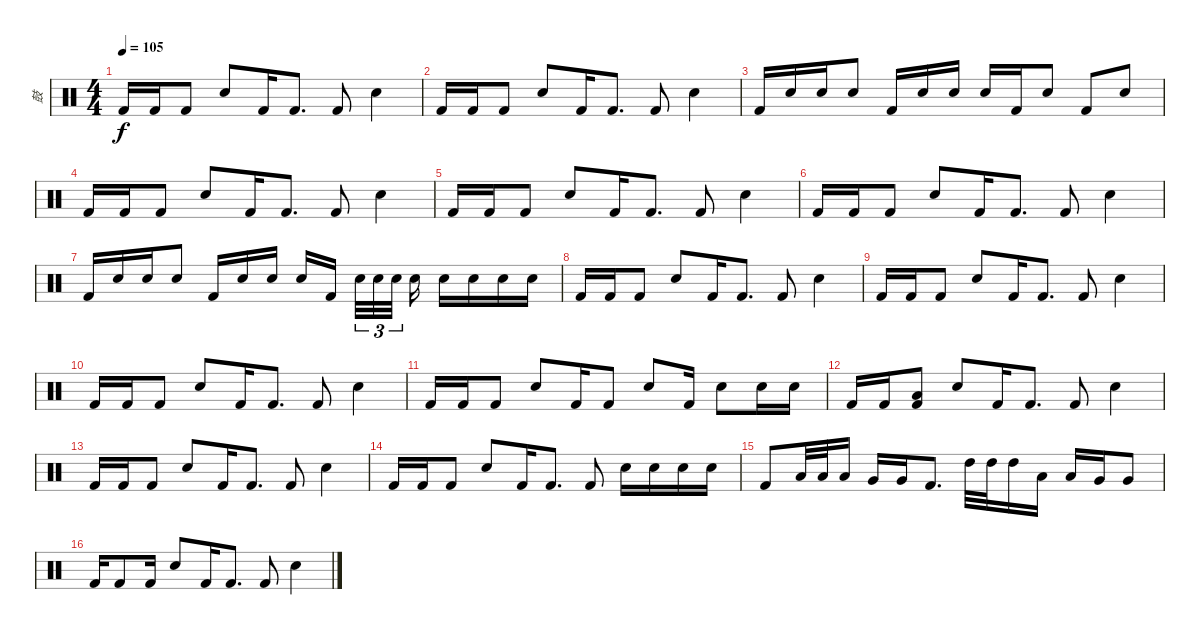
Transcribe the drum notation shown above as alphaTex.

\track ("鼓" "鼓") {instrument percussion}
\staff {score}
\articulation defaults
\ts (4 4)
\tempo 105
\clef neutral
\ks c "Kick (hit) 2".16{dy f} "Kick (hit) 2".16 "Kick (hit) 2".8 "Electric Snare (hit)".8 "Kick (hit) 2".16 "Kick (hit) 2".8{d} "Kick (hit) 2".8 "Electric Snare (hit)".4
|
"Kick (hit) 2".16 "Kick (hit) 2".16 "Kick (hit) 2".8 "Electric Snare (hit)".8 "Kick (hit) 2".16 "Kick (hit) 2".8{d} "Kick (hit) 2".8 "Electric Snare (hit)".4 |
"Kick (hit) 2".16 "Electric Snare (hit)".16 "Electric Snare (hit)".16 "Electric Snare (hit)".8 "Kick (hit) 2".16 "Electric Snare (hit)".16 "Electric Snare (hit)".16 "Electric Snare (hit)".16 "Kick (hit) 2".16 "Electric Snare (hit)".8 "Kick (hit) 2".8 "Electric Snare (hit)".8 |
"Kick (hit) 2".16 "Kick (hit) 2".16 "Kick (hit) 2".8 "Electric Snare (hit)".8 "Kick (hit) 2".16 "Kick (hit) 2".8{d} "Kick (hit) 2".8 "Electric Snare (hit)".4 |
"Kick (hit) 2".16 "Kick (hit) 2".16 "Kick (hit) 2".8 "Electric Snare (hit)".8 "Kick (hit) 2".16 "Kick (hit) 2".8{d} "Kick (hit) 2".8 "Electric Snare (hit)".4 |
"Kick (hit) 2".16 "Kick (hit) 2".16 "Kick (hit) 2".8 "Electric Snare (hit)".8 "Kick (hit) 2".16 "Kick (hit) 2".8{d} "Kick (hit) 2".8 "Electric Snare (hit)".4 |
"Kick (hit) 2".16 "Electric Snare (hit)".16 "Electric Snare (hit)".16 "Electric Snare (hit)".8 "Kick (hit) 2".16 "Electric Snare (hit)".16 "Electric Snare (hit)".16 "Electric Snare (hit)".16 "Kick (hit) 2".16{beam splitsecondary} "Electric Snare (hit)".32{tu (3 2)} "Electric Snare (hit)".32{tu (3 2)} "Electric Snare (hit)".32{tu (3 2) beam splitsecondary} "Electric Snare (hit)".16 "Electric Snare (hit)".16 "Electric Snare (hit)".16 "Electric Snare (hit)".16 "Electric Snare (hit)".16 |
"Kick (hit) 2".16 "Kick (hit) 2".16 "Kick (hit) 2".8 "Electric Snare (hit)".8 "Kick (hit) 2".16 "Kick (hit) 2".8{d} "Kick (hit) 2".8 "Electric Snare (hit)".4 |
"Kick (hit) 2".16 "Kick (hit) 2".16 "Kick (hit) 2".8 "Electric Snare (hit)".8 "Kick (hit) 2".16 "Kick (hit) 2".8{d} "Kick (hit) 2".8 "Electric Snare (hit)".4 |
"Kick (hit) 2".16 "Kick (hit) 2".16 "Kick (hit) 2".8 "Electric Snare (hit)".8 "Kick (hit) 2".16 "Kick (hit) 2".8{d} "Kick (hit) 2".8 "Electric Snare (hit)".4 |
"Kick (hit) 2".16 "Kick (hit) 2".16 "Kick (hit) 2".8 "Electric Snare (hit)".8 "Kick (hit) 2".16 "Kick (hit) 2".8 "Electric Snare (hit)".8 "Kick (hit) 2".16 "Electric Snare (hit)".8 "Electric Snare (hit)".16 "Electric Snare (hit)".16 |
"Kick (hit) 2".16 "Kick (hit) 2".16 ("Kick (hit) 2" "Low Tom (hit)").8 "Electric Snare (hit)".8 "Kick (hit) 2".16 "Kick (hit) 2".8{d} "Kick (hit) 2".8 "Electric Snare (hit)".4 |
"Kick (hit) 2".16 "Kick (hit) 2".16 "Kick (hit) 2".8 "Electric Snare (hit)".8 "Kick (hit) 2".16 "Kick (hit) 2".8{d} "Kick (hit) 2".8 "Electric Snare (hit)".4 |
"Kick (hit) 2".16 "Kick (hit) 2".16 "Kick (hit) 2".8 "Electric Snare (hit)".8 "Kick (hit) 2".16 "Kick (hit) 2".8{d} "Kick (hit) 2".8 "Electric Snare (hit)".16 "Electric Snare (hit)".16 "Electric Snare (hit)".16 "Electric Snare (hit)".16 |
"Kick (hit) 2".8 "Low Tom (hit)".32 "Low Tom (hit)".32 "Low Tom (hit)".16 "Very Low Tom (hit)".16 "Very Low Tom (hit)".16 "Kick (hit) 2".8{d} "High Tom (hit)".32 "High Tom (hit)".32 "High Tom (hit)".16 "Low Tom (hit)".16 "Low Tom (hit)".16 "Very Low Tom (hit)".16 "Very Low Tom (hit)".8 |
"Kick (hit) 2".16 "Kick (hit) 2".8 "Kick (hit) 2".16 "Electric Snare (hit)".8 "Kick (hit) 2".16 "Kick (hit) 2".8{d} "Kick (hit) 2".8 "Electric Snare (hit)".4
